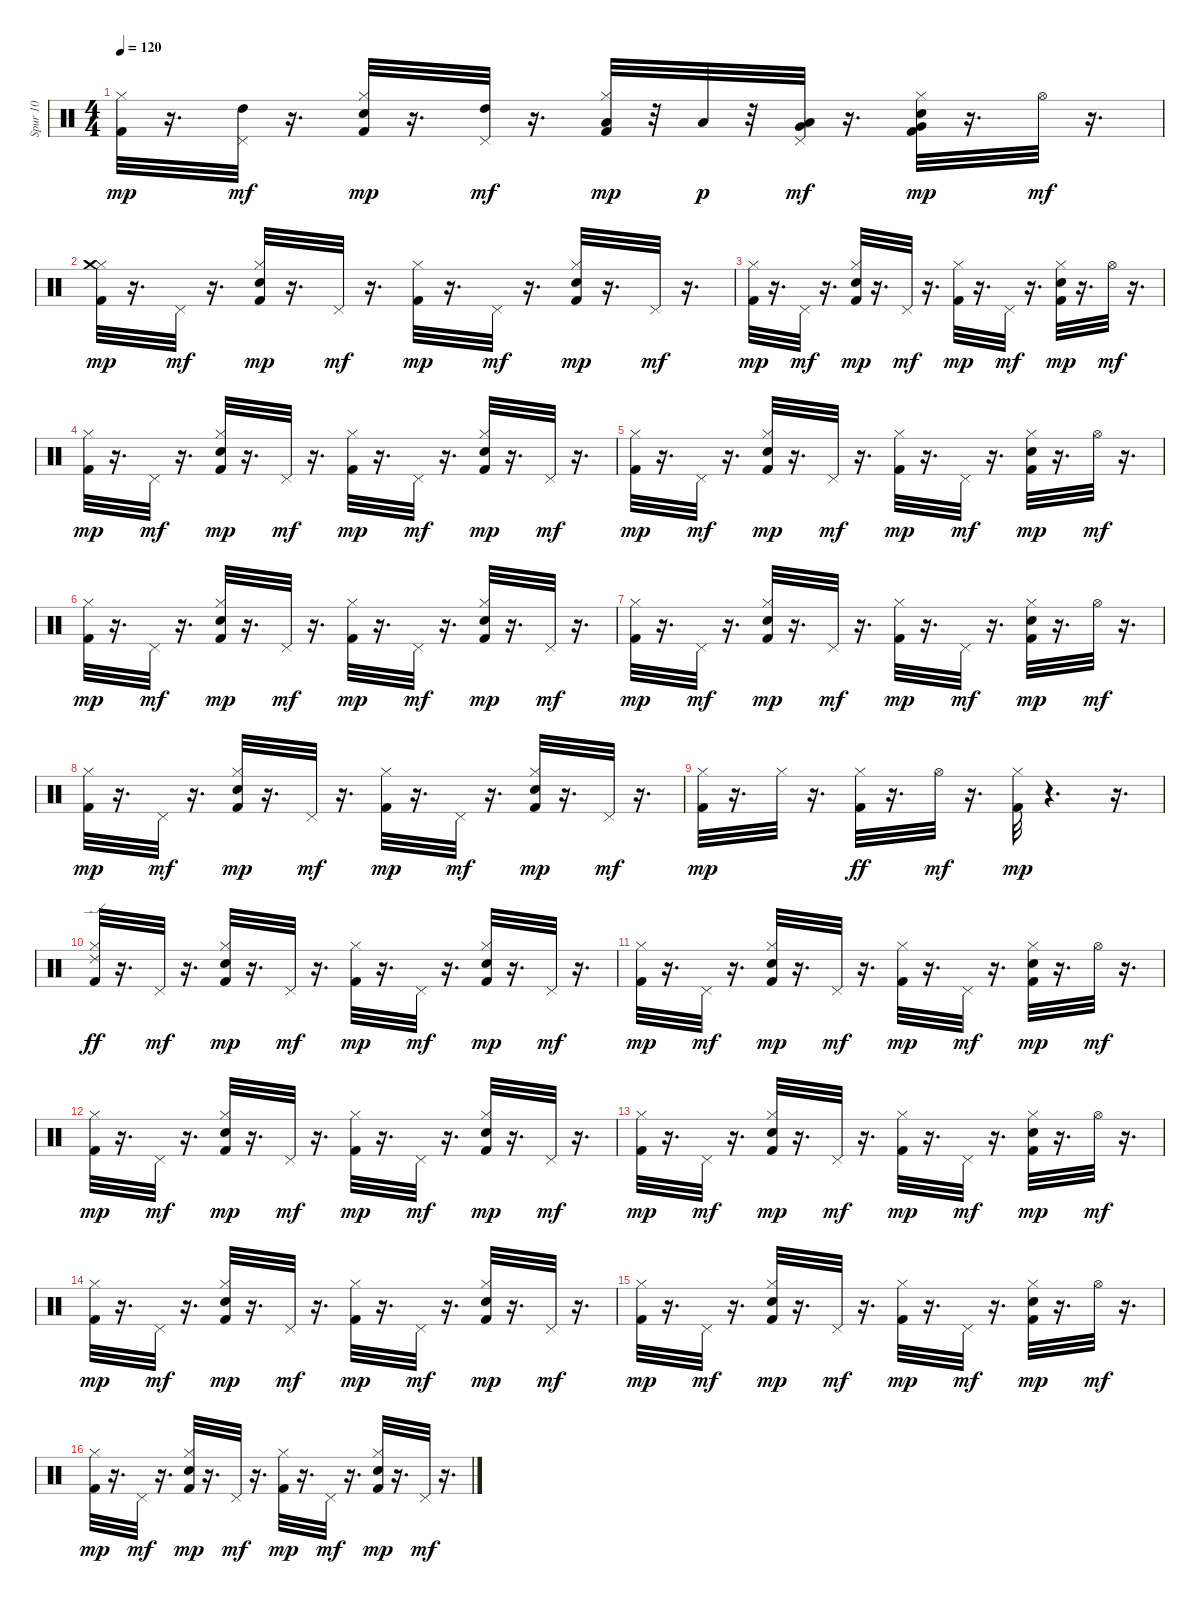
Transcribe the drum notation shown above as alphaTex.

\track ("Spur 10" "Spur 10") {instrument percussion}
\staff {score}
\articulation defaults
\ts (4 4)
\tempo 120
\clef neutral
\ks c
("Kick (hit) 2" "Hi-Hat (closed)").32{dy mp} r.16{d} ("Pedal Hi-Hat (hit)" "High Tom (hit)").32{dy mf} r.16{d} ("Kick (hit) 2" "Electric Snare (hit)" "Hi-Hat (closed)").32{dy mp} r.16{d} ("Pedal Hi-Hat (hit)" "High Tom (hit)").32{dy mf} r.16{d} ("Kick (hit) 2" "Hi-Hat (closed)" "Low Tom (hit)").32{dy mp} r.32 "Low Tom (hit)".32{dy p} r.32 ("Pedal Hi-Hat (hit)" "Low Tom (hit)" "Very Low Tom (hit)").32{dy mf} r.16{d} ("Kick (hit) 2" "Electric Snare (hit)" "Hi-Hat (closed)" "Very Low Tom (hit)").32{dy mp} r.16{d} "Hi-Hat (open)".32{dy mf} r.16{d} |
("Kick (hit) 2" "Hi-Hat (closed)" "Crash medium (hit)").32{dy mp} r.16{d} "Pedal Hi-Hat (hit)".32{dy mf} r.16{d} ("Kick (hit) 2" "Electric Snare (hit)" "Hi-Hat (closed)").32{dy mp} r.16{d} "Pedal Hi-Hat (hit)".32{dy mf} r.16{d} ("Kick (hit) 2" "Hi-Hat (closed)").32{dy mp} r.16{d} "Pedal Hi-Hat (hit)".32{dy mf} r.16{d} ("Kick (hit) 2" "Electric Snare (hit)" "Hi-Hat (closed)").32{dy mp} r.16{d} "Pedal Hi-Hat (hit)".32{dy mf} r.16{d} |
("Kick (hit) 2" "Hi-Hat (closed)").32{dy mp} r.16{d} "Pedal Hi-Hat (hit)".32{dy mf} r.16{d} ("Kick (hit) 2" "Electric Snare (hit)" "Hi-Hat (closed)").32{dy mp} r.16{d} "Pedal Hi-Hat (hit)".32{dy mf} r.16{d} ("Kick (hit) 2" "Hi-Hat (closed)").32{dy mp} r.16{d} "Pedal Hi-Hat (hit)".32{dy mf} r.16{d} ("Kick (hit) 2" "Electric Snare (hit)" "Hi-Hat (closed)").32{dy mp} r.16{d} "Hi-Hat (open)".32{dy mf} r.16{d} |
("Kick (hit) 2" "Hi-Hat (closed)").32{dy mp} r.16{d} "Pedal Hi-Hat (hit)".32{dy mf} r.16{d} ("Kick (hit) 2" "Electric Snare (hit)" "Hi-Hat (closed)").32{dy mp} r.16{d} "Pedal Hi-Hat (hit)".32{dy mf} r.16{d} ("Kick (hit) 2" "Hi-Hat (closed)").32{dy mp} r.16{d} "Pedal Hi-Hat (hit)".32{dy mf} r.16{d} ("Kick (hit) 2" "Electric Snare (hit)" "Hi-Hat (closed)").32{dy mp} r.16{d} "Pedal Hi-Hat (hit)".32{dy mf} r.16{d} |
("Kick (hit) 2" "Hi-Hat (closed)").32{dy mp} r.16{d} "Pedal Hi-Hat (hit)".32{dy mf} r.16{d} ("Kick (hit) 2" "Electric Snare (hit)" "Hi-Hat (closed)").32{dy mp} r.16{d} "Pedal Hi-Hat (hit)".32{dy mf} r.16{d} ("Kick (hit) 2" "Hi-Hat (closed)").32{dy mp} r.16{d} "Pedal Hi-Hat (hit)".32{dy mf} r.16{d} ("Kick (hit) 2" "Electric Snare (hit)" "Hi-Hat (closed)").32{dy mp} r.16{d} "Hi-Hat (open)".32{dy mf} r.16{d} |
("Kick (hit) 2" "Hi-Hat (closed)").32{dy mp} r.16{d} "Pedal Hi-Hat (hit)".32{dy mf} r.16{d} ("Kick (hit) 2" "Electric Snare (hit)" "Hi-Hat (closed)").32{dy mp} r.16{d} "Pedal Hi-Hat (hit)".32{dy mf} r.16{d} ("Kick (hit) 2" "Hi-Hat (closed)").32{dy mp} r.16{d} "Pedal Hi-Hat (hit)".32{dy mf} r.16{d} ("Kick (hit) 2" "Electric Snare (hit)" "Hi-Hat (closed)").32{dy mp} r.16{d} "Pedal Hi-Hat (hit)".32{dy mf} r.16{d} |
("Kick (hit) 2" "Hi-Hat (closed)").32{dy mp} r.16{d} "Pedal Hi-Hat (hit)".32{dy mf} r.16{d} ("Kick (hit) 2" "Electric Snare (hit)" "Hi-Hat (closed)").32{dy mp} r.16{d} "Pedal Hi-Hat (hit)".32{dy mf} r.16{d} ("Kick (hit) 2" "Hi-Hat (closed)").32{dy mp} r.16{d} "Pedal Hi-Hat (hit)".32{dy mf} r.16{d} ("Kick (hit) 2" "Electric Snare (hit)" "Hi-Hat (closed)").32{dy mp} r.16{d} "Hi-Hat (open)".32{dy mf} r.16{d} |
("Kick (hit) 2" "Hi-Hat (closed)").32{dy mp} r.16{d} "Pedal Hi-Hat (hit)".32{dy mf} r.16{d} ("Kick (hit) 2" "Electric Snare (hit)" "Hi-Hat (closed)").32{dy mp} r.16{d} "Pedal Hi-Hat (hit)".32{dy mf} r.16{d} ("Kick (hit) 2" "Hi-Hat (closed)").32{dy mp} r.16{d} "Pedal Hi-Hat (hit)".32{dy mf} r.16{d} ("Kick (hit) 2" "Electric Snare (hit)" "Hi-Hat (closed)").32{dy mp} r.16{d} "Pedal Hi-Hat (hit)".32{dy mf} r.16{d} |
("Kick (hit) 2" "Hi-Hat (closed)").32{dy mp} r.16{d} "Hi-Hat (closed)".32 r.16{d} ("Hi-Hat (closed)" "Kick (hit) 2").32{dy ff} r.16{d} "Hi-Hat (open)".32{dy mf} r.16{d} ("Kick (hit) 2" "Hi-Hat (closed)").32{dy mp} r.4{d} r.16{d} |
("Ride (edge) 2" "Hi-Hat (closed)" "Kick (hit) 2").32{dy ff} r.16{d} "Pedal Hi-Hat (hit)".32{dy mf} r.16{d} ("Hi-Hat (closed)" "Kick (hit) 2" "Electric Snare (hit)").32{dy mp} r.16{d} "Pedal Hi-Hat (hit)".32{dy mf} r.16{d} ("Kick (hit) 2" "Hi-Hat (closed)").32{dy mp} r.16{d} "Pedal Hi-Hat (hit)".32{dy mf} r.16{d} ("Kick (hit) 2" "Electric Snare (hit)" "Hi-Hat (closed)").32{dy mp} r.16{d} "Pedal Hi-Hat (hit)".32{dy mf} r.16{d} |
("Kick (hit) 2" "Hi-Hat (closed)").32{dy mp} r.16{d} "Pedal Hi-Hat (hit)".32{dy mf} r.16{d} ("Kick (hit) 2" "Electric Snare (hit)" "Hi-Hat (closed)").32{dy mp} r.16{d} "Pedal Hi-Hat (hit)".32{dy mf} r.16{d} ("Kick (hit) 2" "Hi-Hat (closed)").32{dy mp} r.16{d} "Pedal Hi-Hat (hit)".32{dy mf} r.16{d} ("Kick (hit) 2" "Electric Snare (hit)" "Hi-Hat (closed)").32{dy mp} r.16{d} "Hi-Hat (open)".32{dy mf} r.16{d} |
("Kick (hit) 2" "Hi-Hat (closed)").32{dy mp} r.16{d} "Pedal Hi-Hat (hit)".32{dy mf} r.16{d} ("Kick (hit) 2" "Electric Snare (hit)" "Hi-Hat (closed)").32{dy mp} r.16{d} "Pedal Hi-Hat (hit)".32{dy mf} r.16{d} ("Kick (hit) 2" "Hi-Hat (closed)").32{dy mp} r.16{d} "Pedal Hi-Hat (hit)".32{dy mf} r.16{d} ("Kick (hit) 2" "Electric Snare (hit)" "Hi-Hat (closed)").32{dy mp} r.16{d} "Pedal Hi-Hat (hit)".32{dy mf} r.16{d} |
("Kick (hit) 2" "Hi-Hat (closed)").32{dy mp} r.16{d} "Pedal Hi-Hat (hit)".32{dy mf} r.16{d} ("Kick (hit) 2" "Electric Snare (hit)" "Hi-Hat (closed)").32{dy mp} r.16{d} "Pedal Hi-Hat (hit)".32{dy mf} r.16{d} ("Kick (hit) 2" "Hi-Hat (closed)").32{dy mp} r.16{d} "Pedal Hi-Hat (hit)".32{dy mf} r.16{d} ("Kick (hit) 2" "Electric Snare (hit)" "Hi-Hat (closed)").32{dy mp} r.16{d} "Hi-Hat (open)".32{dy mf} r.16{d} |
("Kick (hit) 2" "Hi-Hat (closed)").32{dy mp} r.16{d} "Pedal Hi-Hat (hit)".32{dy mf} r.16{d} ("Kick (hit) 2" "Electric Snare (hit)" "Hi-Hat (closed)").32{dy mp} r.16{d} "Pedal Hi-Hat (hit)".32{dy mf} r.16{d} ("Kick (hit) 2" "Hi-Hat (closed)").32{dy mp} r.16{d} "Pedal Hi-Hat (hit)".32{dy mf} r.16{d} ("Kick (hit) 2" "Electric Snare (hit)" "Hi-Hat (closed)").32{dy mp} r.16{d} "Pedal Hi-Hat (hit)".32{dy mf} r.16{d} |
("Kick (hit) 2" "Hi-Hat (closed)").32{dy mp} r.16{d} "Pedal Hi-Hat (hit)".32{dy mf} r.16{d} ("Kick (hit) 2" "Electric Snare (hit)" "Hi-Hat (closed)").32{dy mp} r.16{d} "Pedal Hi-Hat (hit)".32{dy mf} r.16{d} ("Kick (hit) 2" "Hi-Hat (closed)").32{dy mp} r.16{d} "Pedal Hi-Hat (hit)".32{dy mf} r.16{d} ("Kick (hit) 2" "Electric Snare (hit)" "Hi-Hat (closed)").32{dy mp} r.16{d} "Hi-Hat (open)".32{dy mf} r.16{d} |
("Kick (hit) 2" "Hi-Hat (closed)").32{dy mp} r.16{d} "Pedal Hi-Hat (hit)".32{dy mf} r.16{d} ("Kick (hit) 2" "Electric Snare (hit)" "Hi-Hat (closed)").32{dy mp} r.16{d} "Pedal Hi-Hat (hit)".32{dy mf} r.16{d} ("Kick (hit) 2" "Hi-Hat (closed)").32{dy mp} r.16{d} "Pedal Hi-Hat (hit)".32{dy mf} r.16{d} ("Kick (hit) 2" "Electric Snare (hit)" "Hi-Hat (closed)").32{dy mp} r.16{d} "Pedal Hi-Hat (hit)".32{dy mf} r.16{d}
